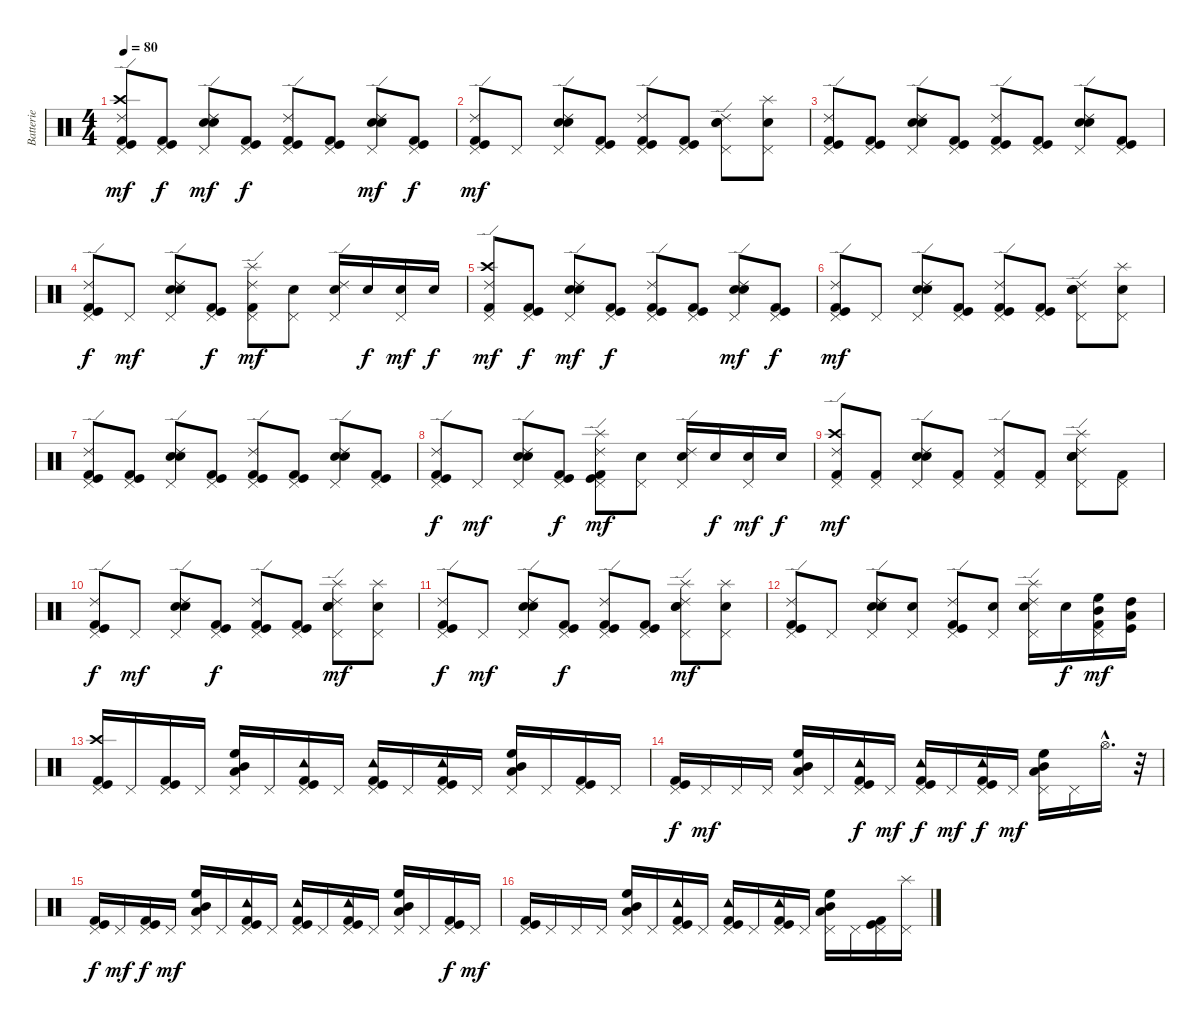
\track ("Batterie" "Batterie") {instrument percussion}
\staff {score}
\articulation defaults
\ts (4 4)
\tempo 80
\clef neutral
\ks c
("Pedal Hi-Hat (hit)" "Ride (edge) 2" "Crash high (hit)" "Kick (hit)" "Kick (hit) 2").8{dy mf} ("Pedal Hi-Hat (hit)" "Kick (hit)" "Kick (hit) 2").8{dy f} ("Pedal Hi-Hat (hit)" "Ride (edge) 2" "Snare (hit) 2" "Electric Snare (hit)").8{dy mf} ("Pedal Hi-Hat (hit)" "Kick (hit)" "Kick (hit) 2").8{dy f} ("Pedal Hi-Hat (hit)" "Ride (edge) 2" "Kick (hit)" "Kick (hit) 2").8 ("Pedal Hi-Hat (hit)" "Kick (hit)" "Kick (hit) 2").8 ("Pedal Hi-Hat (hit)" "Ride (edge) 2" "Snare (hit) 2" "Electric Snare (hit)").8{dy mf} ("Pedal Hi-Hat (hit)" "Kick (hit)" "Kick (hit) 2").8{dy f} |
("Pedal Hi-Hat (hit)" "Ride (edge) 2" "Kick (hit)" "Kick (hit) 2").8{dy mf} "Pedal Hi-Hat (hit)".8 ("Pedal Hi-Hat (hit)" "Ride (edge) 2" "Snare (hit) 2" "Electric Snare (hit)").8 ("Pedal Hi-Hat (hit)" "Kick (hit)" "Kick (hit) 2").8 ("Pedal Hi-Hat (hit)" "Ride (edge) 2" "Kick (hit)" "Kick (hit) 2").8 ("Pedal Hi-Hat (hit)" "Kick (hit)" "Kick (hit) 2").8 ("Pedal Hi-Hat (hit)" "Ride (edge) 2" "Snare (hit) 2" "Electric Snare (hit)").8 ("Pedal Hi-Hat (hit)" "Splash (hit)" "Snare (hit) 2").8 |
("Pedal Hi-Hat (hit)" "Ride (edge) 2" "Kick (hit)" "Kick (hit) 2").8 ("Pedal Hi-Hat (hit)" "Kick (hit)" "Kick (hit) 2").8 ("Pedal Hi-Hat (hit)" "Ride (edge) 2" "Snare (hit) 2" "Electric Snare (hit)").8 ("Pedal Hi-Hat (hit)" "Kick (hit)" "Kick (hit) 2").8 ("Pedal Hi-Hat (hit)" "Ride (edge) 2" "Kick (hit)" "Kick (hit) 2").8 ("Pedal Hi-Hat (hit)" "Kick (hit)" "Kick (hit) 2").8 ("Pedal Hi-Hat (hit)" "Ride (edge) 2" "Snare (hit) 2" "Electric Snare (hit)").8 ("Pedal Hi-Hat (hit)" "Kick (hit)" "Kick (hit) 2").8 |
("Pedal Hi-Hat (hit)" "Ride (edge) 2" "Kick (hit)" "Kick (hit) 2").8{dy f} "Pedal Hi-Hat (hit)".8{dy mf} ("Pedal Hi-Hat (hit)" "Ride (edge) 2" "Snare (hit) 2" "Electric Snare (hit)").8 ("Pedal Hi-Hat (hit)" "Kick (hit)" "Kick (hit) 2").8{dy f} ("Pedal Hi-Hat (hit)" "Ride (edge) 2" "Splash (hit)" "Kick (hit) 2").8{dy mf} ("Pedal Hi-Hat (hit)" "Snare (hit) 2").8 ("Pedal Hi-Hat (hit)" "Ride (edge) 2" "Snare (hit) 2").16 "Snare (hit) 2".16{dy f} ("Pedal Hi-Hat (hit)" "Snare (hit) 2").16{dy mf} "Snare (hit) 2".16{dy f} |
("Pedal Hi-Hat (hit)" "Ride (edge) 2" "Crash high (hit)" "Kick (hit) 2").8{dy mf} ("Pedal Hi-Hat (hit)" "Kick (hit)" "Kick (hit) 2").8{dy f} ("Pedal Hi-Hat (hit)" "Ride (edge) 2" "Snare (hit) 2" "Electric Snare (hit)").8{dy mf} ("Pedal Hi-Hat (hit)" "Kick (hit)" "Kick (hit) 2").8{dy f} ("Pedal Hi-Hat (hit)" "Ride (edge) 2" "Kick (hit)" "Kick (hit) 2").8 ("Pedal Hi-Hat (hit)" "Kick (hit)" "Kick (hit) 2").8 ("Pedal Hi-Hat (hit)" "Ride (edge) 2" "Snare (hit) 2" "Electric Snare (hit)").8{dy mf} ("Pedal Hi-Hat (hit)" "Kick (hit)" "Kick (hit) 2").8{dy f} |
("Pedal Hi-Hat (hit)" "Ride (edge) 2" "Kick (hit)" "Kick (hit) 2").8{dy mf} "Pedal Hi-Hat (hit)".8 ("Pedal Hi-Hat (hit)" "Ride (edge) 2" "Snare (hit) 2" "Electric Snare (hit)").8 ("Pedal Hi-Hat (hit)" "Kick (hit)" "Kick (hit) 2").8 ("Pedal Hi-Hat (hit)" "Ride (edge) 2" "Kick (hit)" "Kick (hit) 2").8 ("Pedal Hi-Hat (hit)" "Kick (hit)" "Kick (hit) 2").8 ("Pedal Hi-Hat (hit)" "Ride (edge) 2" "Snare (hit) 2" "Electric Snare (hit)").8 ("Pedal Hi-Hat (hit)" "Splash (hit)" "Snare (hit) 2").8 |
("Pedal Hi-Hat (hit)" "Ride (edge) 2" "Kick (hit)" "Kick (hit) 2").8 ("Pedal Hi-Hat (hit)" "Kick (hit)" "Kick (hit) 2").8 ("Pedal Hi-Hat (hit)" "Ride (edge) 2" "Snare (hit) 2" "Electric Snare (hit)").8 ("Pedal Hi-Hat (hit)" "Kick (hit)" "Kick (hit) 2").8 ("Pedal Hi-Hat (hit)" "Ride (edge) 2" "Kick (hit)" "Kick (hit) 2").8 ("Pedal Hi-Hat (hit)" "Kick (hit)" "Kick (hit) 2").8 ("Pedal Hi-Hat (hit)" "Ride (edge) 2" "Snare (hit) 2" "Electric Snare (hit)").8 ("Pedal Hi-Hat (hit)" "Kick (hit)" "Kick (hit) 2").8 |
("Pedal Hi-Hat (hit)" "Ride (edge) 2" "Kick (hit)" "Kick (hit) 2").8{dy f} "Pedal Hi-Hat (hit)".8{dy mf} ("Pedal Hi-Hat (hit)" "Ride (edge) 2" "Snare (hit) 2" "Electric Snare (hit)").8 ("Pedal Hi-Hat (hit)" "Kick (hit)" "Kick (hit) 2").8{dy f} ("Pedal Hi-Hat (hit)" "Ride (edge) 2" "Splash (hit)" "Kick (hit)" "Kick (hit) 2").8{dy mf} ("Pedal Hi-Hat (hit)" "Snare (hit) 2").8 ("Pedal Hi-Hat (hit)" "Ride (edge) 2" "Snare (hit) 2").16 "Snare (hit) 2".16{dy f} ("Pedal Hi-Hat (hit)" "Snare (hit) 2").16{dy mf} "Snare (hit) 2".16{dy f} |
("Pedal Hi-Hat (hit)" "Ride (edge) 2" "Crash high (hit)" "Kick (hit) 2").8{dy mf} ("Pedal Hi-Hat (hit)" "Kick (hit) 2").8 ("Pedal Hi-Hat (hit)" "Ride (edge) 2" "Snare (hit) 2" "Electric Snare (hit)").8 ("Pedal Hi-Hat (hit)" "Kick (hit) 2").8 ("Pedal Hi-Hat (hit)" "Ride (edge) 2" "Kick (hit) 2").8 ("Pedal Hi-Hat (hit)" "Kick (hit) 2").8 ("Pedal Hi-Hat (hit)" "Ride (edge) 2" "Snare (hit) 2" "Electric Snare (hit)" "Splash (hit)").8 ("Pedal Hi-Hat (hit)" "Kick (hit) 2").8 |
("Pedal Hi-Hat (hit)" "Ride (edge) 2" "Kick (hit)" "Kick (hit) 2").8{dy f} "Pedal Hi-Hat (hit)".8{dy mf} ("Pedal Hi-Hat (hit)" "Ride (edge) 2" "Snare (hit) 2" "Electric Snare (hit)").8 ("Pedal Hi-Hat (hit)" "Kick (hit)" "Kick (hit) 2").8{dy f} ("Pedal Hi-Hat (hit)" "Ride (edge) 2" "Kick (hit)" "Kick (hit) 2").8 ("Pedal Hi-Hat (hit)" "Kick (hit)" "Kick (hit) 2").8 ("Pedal Hi-Hat (hit)" "Ride (edge) 2" "Snare (hit) 2" "Electric Snare (hit)" "Splash (hit)").8{dy mf} ("Pedal Hi-Hat (hit)" "Snare (hit) 2" "Splash (hit)").8 |
("Pedal Hi-Hat (hit)" "Ride (edge) 2" "Kick (hit)" "Kick (hit) 2").8{dy f} "Pedal Hi-Hat (hit)".8{dy mf} ("Pedal Hi-Hat (hit)" "Ride (edge) 2" "Electric Snare (hit)" "Snare (hit) 2").8 ("Pedal Hi-Hat (hit)" "Kick (hit)" "Kick (hit) 2").8{dy f} ("Pedal Hi-Hat (hit)" "Ride (edge) 2" "Kick (hit)" "Kick (hit) 2").8 ("Pedal Hi-Hat (hit)" "Kick (hit)" "Kick (hit) 2").8 ("Pedal Hi-Hat (hit)" "Ride (edge) 2" "Snare (hit) 2" "Electric Snare (hit)" "Splash (hit)").8{dy mf} ("Pedal Hi-Hat (hit)" "Snare (hit) 2" "Splash (hit)").8 |
("Pedal Hi-Hat (hit)" "Ride (edge) 2" "Kick (hit)" "Kick (hit) 2").8 "Pedal Hi-Hat (hit)".8 ("Pedal Hi-Hat (hit)" "Ride (edge) 2" "Snare (hit) 2" "Electric Snare (hit)").8 ("Pedal Hi-Hat (hit)" "Snare (hit) 2").8 ("Pedal Hi-Hat (hit)" "Ride (edge) 2" "Kick (hit)" "Kick (hit) 2").8 ("Pedal Hi-Hat (hit)" "Snare (hit) 2").8 ("Pedal Hi-Hat (hit)" "Ride (edge) 2" "Snare (hit) 2" "Splash (hit)").16 "Snare (hit) 2".16{dy f} ("Pedal Hi-Hat (hit)" "High Floor Tom (hit)" "Mid Tom (hit)" "Kick (hit) 2").16{dy mf} ("High Tom (hit)" "Low Tom (hit)" "Kick (hit)").16 |
("Pedal Hi-Hat (hit)" "Crash high (hit)" "Kick (hit)" "Kick (hit) 2").16 "Pedal Hi-Hat (hit)".16 ("Pedal Hi-Hat (hit)" "Kick (hit)" "Kick (hit) 2").16 "Pedal Hi-Hat (hit)".16 ("Pedal Hi-Hat (hit)" "High Floor Tom (hit)" "Mid Tom (hit)" "Low Tom (hit)").16 "Pedal Hi-Hat (hit)".16 ("Pedal Hi-Hat (hit)" "Tambourine (hit)" "Kick (hit)" "Kick (hit) 2").16 "Pedal Hi-Hat (hit)".16 ("Pedal Hi-Hat (hit)" "Tambourine (hit)" "Kick (hit)" "Kick (hit) 2").16 "Pedal Hi-Hat (hit)".16 ("Pedal Hi-Hat (hit)" "Tambourine (hit)" "Kick (hit)" "Kick (hit) 2").16 "Pedal Hi-Hat (hit)".16 ("Pedal Hi-Hat (hit)" "High Floor Tom (hit)" "Mid Tom (hit)" "Low Tom (hit)").16 "Pedal Hi-Hat (hit)".16 ("Pedal Hi-Hat (hit)" "Kick (hit)" "Kick (hit) 2").16 "Pedal Hi-Hat (hit)".16 |
("Pedal Hi-Hat (hit)" "Kick (hit)" "Kick (hit) 2").16{dy f} "Pedal Hi-Hat (hit)".16{dy mf} "Pedal Hi-Hat (hit)".16 "Pedal Hi-Hat (hit)".16 ("Pedal Hi-Hat (hit)" "High Floor Tom (hit)" "Mid Tom (hit)" "Low Tom (hit)").16 "Pedal Hi-Hat (hit)".16 ("Pedal Hi-Hat (hit)" "Tambourine (hit)" "Kick (hit)" "Kick (hit) 2").16{dy f} "Pedal Hi-Hat (hit)".16{dy mf} ("Pedal Hi-Hat (hit)" "Tambourine (hit)" "Kick (hit)" "Kick (hit) 2").16{dy f} "Pedal Hi-Hat (hit)".16{dy mf} ("Pedal Hi-Hat (hit)" "Tambourine (hit)" "Kick (hit)" "Kick (hit) 2").16{dy f} "Pedal Hi-Hat (hit)".16{dy mf} ("Pedal Hi-Hat (hit)" "High Floor Tom (hit)" "Mid Tom (hit)" "Low Tom (hit)").16 "Pedal Hi-Hat (hit)".16 "Hi-Hat (open)"{hac}.16{d} r.32 |
("Pedal Hi-Hat (hit)" "Kick (hit)" "Kick (hit) 2").16{dy f} "Pedal Hi-Hat (hit)".16{dy mf} ("Pedal Hi-Hat (hit)" "Kick (hit)" "Kick (hit) 2").16{dy f} "Pedal Hi-Hat (hit)".16{dy mf} ("Pedal Hi-Hat (hit)" "Mid Tom (hit)" "High Floor Tom (hit)" "Low Tom (hit)").16 "Pedal Hi-Hat (hit)".16 ("Pedal Hi-Hat (hit)" "Tambourine (hit)" "Kick (hit)" "Kick (hit) 2").16 "Pedal Hi-Hat (hit)".16 ("Pedal Hi-Hat (hit)" "Tambourine (hit)" "Kick (hit)" "Kick (hit) 2").16 "Pedal Hi-Hat (hit)".16 ("Pedal Hi-Hat (hit)" "Tambourine (hit)" "Kick (hit)" "Kick (hit) 2").16 "Pedal Hi-Hat (hit)".16 ("Pedal Hi-Hat (hit)" "High Floor Tom (hit)" "Mid Tom (hit)" "Low Tom (hit)").16 "Pedal Hi-Hat (hit)".16 ("Pedal Hi-Hat (hit)" "Kick (hit)" "Kick (hit) 2").16{dy f} "Pedal Hi-Hat (hit)".16{dy mf} |
("Pedal Hi-Hat (hit)" "Kick (hit)" "Kick (hit) 2").16 "Pedal Hi-Hat (hit)".16 "Pedal Hi-Hat (hit)".16 "Pedal Hi-Hat (hit)".16 ("Pedal Hi-Hat (hit)" "High Floor Tom (hit)" "Mid Tom (hit)" "Low Tom (hit)").16 "Pedal Hi-Hat (hit)".16 ("Pedal Hi-Hat (hit)" "Tambourine (hit)" "Kick (hit)" "Kick (hit) 2").16 "Pedal Hi-Hat (hit)".16 ("Pedal Hi-Hat (hit)" "Tambourine (hit)" "Kick (hit)" "Kick (hit) 2").16 "Pedal Hi-Hat (hit)".16 ("Pedal Hi-Hat (hit)" "Tambourine (hit)" "Kick (hit)" "Kick (hit) 2").16 "Pedal Hi-Hat (hit)".16 ("Pedal Hi-Hat (hit)" "Mid Tom (hit)" "High Floor Tom (hit)" "Low Tom (hit)").16 "Pedal Hi-Hat (hit)".16 ("Pedal Hi-Hat (hit)" "Kick (hit)" "Kick (hit) 2").16 ("Pedal Hi-Hat (hit)" "Splash (hit)").16
